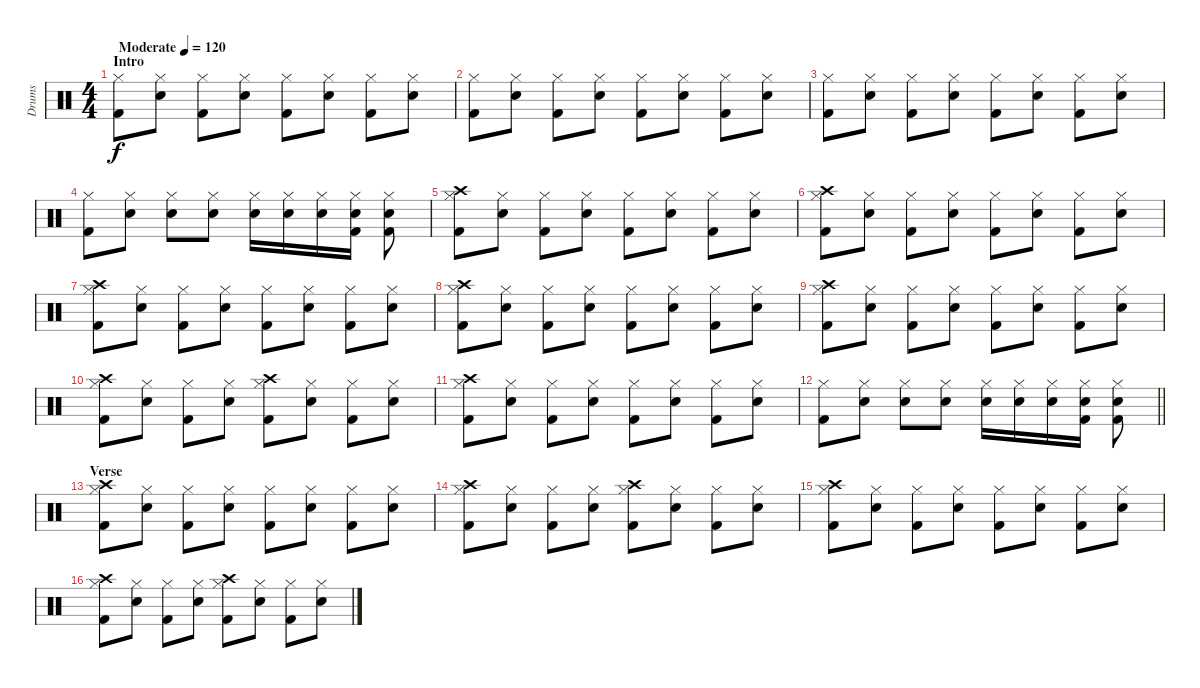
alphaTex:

\track ("Drums" "Drums") {instrument percussion}
\staff
\articulation defaults
\ts (4 4)
\section ("" "Intro")
\tempo (120 "Moderate")
\clef neutral
\ks c
("Hi-Hat (closed)" "Kick (hit) 2").8{dy f} ("Hi-Hat (closed)" "Electric Snare (hit)").8 ("Hi-Hat (closed)" "Kick (hit) 2").8 ("Hi-Hat (closed)" "Electric Snare (hit)").8 ("Hi-Hat (closed)" "Kick (hit) 2").8 ("Hi-Hat (closed)" "Electric Snare (hit)").8 ("Hi-Hat (closed)" "Kick (hit) 2").8 ("Hi-Hat (closed)" "Electric Snare (hit)").8 |
("Hi-Hat (closed)" "Kick (hit) 2").8 ("Hi-Hat (closed)" "Electric Snare (hit)").8 ("Hi-Hat (closed)" "Kick (hit) 2").8 ("Hi-Hat (closed)" "Electric Snare (hit)").8 ("Hi-Hat (closed)" "Kick (hit) 2").8 ("Hi-Hat (closed)" "Electric Snare (hit)").8 ("Hi-Hat (closed)" "Kick (hit) 2").8 ("Hi-Hat (closed)" "Electric Snare (hit)").8 |
("Hi-Hat (closed)" "Kick (hit) 2").8 ("Hi-Hat (closed)" "Electric Snare (hit)").8 ("Hi-Hat (closed)" "Kick (hit) 2").8 ("Hi-Hat (closed)" "Electric Snare (hit)").8 ("Hi-Hat (closed)" "Kick (hit) 2").8 ("Hi-Hat (closed)" "Electric Snare (hit)").8 ("Hi-Hat (closed)" "Kick (hit) 2").8 ("Hi-Hat (closed)" "Electric Snare (hit)").8 |
("Hi-Hat (closed)" "Kick (hit) 2").8 ("Hi-Hat (closed)" "Electric Snare (hit)").8 ("Hi-Hat (closed)" "Electric Snare (hit)").8 ("Hi-Hat (closed)" "Electric Snare (hit)").8 ("Hi-Hat (closed)" "Electric Snare (hit)").16 ("Hi-Hat (closed)" "Electric Snare (hit)").16 ("Hi-Hat (closed)" "Electric Snare (hit)").16 ("Hi-Hat (closed)" "Kick (hit) 2" "Electric Snare (hit)").16 ("Hi-Hat (closed)" "Kick (hit) 2" "Electric Snare (hit)").8 |
("Hi-Hat (closed)" "Kick (hit) 2" "Crash high (hit)").8 ("Hi-Hat (closed)" "Electric Snare (hit)").8 ("Hi-Hat (closed)" "Kick (hit) 2").8 ("Hi-Hat (closed)" "Electric Snare (hit)").8 ("Hi-Hat (closed)" "Kick (hit) 2").8 ("Hi-Hat (closed)" "Electric Snare (hit)").8 ("Hi-Hat (closed)" "Kick (hit) 2").8 ("Hi-Hat (closed)" "Electric Snare (hit)").8 |
("Hi-Hat (closed)" "Kick (hit) 2" "Crash high (hit)").8 ("Hi-Hat (closed)" "Electric Snare (hit)").8 ("Hi-Hat (closed)" "Kick (hit) 2").8 ("Hi-Hat (closed)" "Electric Snare (hit)").8 ("Hi-Hat (closed)" "Kick (hit) 2").8 ("Hi-Hat (closed)" "Electric Snare (hit)").8 ("Hi-Hat (closed)" "Kick (hit) 2").8 ("Hi-Hat (closed)" "Electric Snare (hit)").8 |
("Hi-Hat (closed)" "Kick (hit) 2" "Crash high (hit)").8 ("Hi-Hat (closed)" "Electric Snare (hit)").8 ("Hi-Hat (closed)" "Kick (hit) 2").8 ("Hi-Hat (closed)" "Electric Snare (hit)").8 ("Hi-Hat (closed)" "Kick (hit) 2").8 ("Hi-Hat (closed)" "Electric Snare (hit)").8 ("Hi-Hat (closed)" "Kick (hit) 2").8 ("Hi-Hat (closed)" "Electric Snare (hit)").8 |
("Hi-Hat (closed)" "Kick (hit) 2" "Crash high (hit)").8 ("Hi-Hat (closed)" "Electric Snare (hit)").8 ("Hi-Hat (closed)" "Kick (hit) 2").8 ("Hi-Hat (closed)" "Electric Snare (hit)").8 ("Hi-Hat (closed)" "Kick (hit) 2").8 ("Hi-Hat (closed)" "Electric Snare (hit)").8 ("Hi-Hat (closed)" "Kick (hit) 2").8 ("Hi-Hat (closed)" "Electric Snare (hit)").8 |
("Hi-Hat (closed)" "Kick (hit) 2" "Crash high (hit)").8 ("Hi-Hat (closed)" "Electric Snare (hit)").8 ("Hi-Hat (closed)" "Kick (hit) 2").8 ("Hi-Hat (closed)" "Electric Snare (hit)").8 ("Hi-Hat (closed)" "Kick (hit) 2").8 ("Hi-Hat (closed)" "Electric Snare (hit)").8 ("Hi-Hat (closed)" "Kick (hit) 2").8 ("Hi-Hat (closed)" "Electric Snare (hit)").8 |
("Hi-Hat (closed)" "Kick (hit) 2" "Crash high (hit)").8 ("Hi-Hat (closed)" "Electric Snare (hit)").8 ("Hi-Hat (closed)" "Kick (hit) 2").8 ("Hi-Hat (closed)" "Electric Snare (hit)").8 ("Hi-Hat (closed)" "Kick (hit) 2" "Crash high (hit)").8 ("Hi-Hat (closed)" "Electric Snare (hit)").8 ("Hi-Hat (closed)" "Kick (hit) 2").8 ("Hi-Hat (closed)" "Electric Snare (hit)").8 |
("Hi-Hat (closed)" "Kick (hit) 2" "Crash high (hit)").8 ("Hi-Hat (closed)" "Electric Snare (hit)").8 ("Hi-Hat (closed)" "Kick (hit) 2").8 ("Hi-Hat (closed)" "Electric Snare (hit)").8 ("Hi-Hat (closed)" "Kick (hit) 2").8 ("Hi-Hat (closed)" "Electric Snare (hit)").8 ("Hi-Hat (closed)" "Kick (hit) 2").8 ("Hi-Hat (closed)" "Electric Snare (hit)").8 |
\barLineRight lightlight
("Hi-Hat (closed)" "Kick (hit) 2").8 ("Hi-Hat (closed)" "Electric Snare (hit)").8 ("Hi-Hat (closed)" "Electric Snare (hit)").8 ("Hi-Hat (closed)" "Electric Snare (hit)").8 ("Hi-Hat (closed)" "Electric Snare (hit)").16 ("Hi-Hat (closed)" "Electric Snare (hit)").16 ("Hi-Hat (closed)" "Electric Snare (hit)").16 ("Hi-Hat (closed)" "Kick (hit) 2" "Electric Snare (hit)").16 ("Hi-Hat (closed)" "Kick (hit) 2" "Electric Snare (hit)").8 |
\section ("" "Verse")
("Hi-Hat (closed)" "Kick (hit) 2" "Crash high (hit)").8 ("Hi-Hat (closed)" "Electric Snare (hit)").8 ("Hi-Hat (closed)" "Kick (hit) 2").8 ("Hi-Hat (closed)" "Electric Snare (hit)").8 ("Hi-Hat (closed)" "Kick (hit) 2").8 ("Hi-Hat (closed)" "Electric Snare (hit)").8 ("Hi-Hat (closed)" "Kick (hit) 2").8 ("Hi-Hat (closed)" "Electric Snare (hit)").8 |
("Hi-Hat (closed)" "Kick (hit) 2" "Crash high (hit)").8 ("Hi-Hat (closed)" "Electric Snare (hit)").8 ("Hi-Hat (closed)" "Kick (hit) 2").8 ("Hi-Hat (closed)" "Electric Snare (hit)").8 ("Hi-Hat (closed)" "Kick (hit) 2" "Crash high (hit)").8 ("Hi-Hat (closed)" "Electric Snare (hit)").8 ("Hi-Hat (closed)" "Kick (hit) 2").8 ("Hi-Hat (closed)" "Electric Snare (hit)").8 |
("Hi-Hat (closed)" "Kick (hit) 2" "Crash high (hit)").8 ("Hi-Hat (closed)" "Electric Snare (hit)").8 ("Hi-Hat (closed)" "Kick (hit) 2").8 ("Hi-Hat (closed)" "Electric Snare (hit)").8 ("Hi-Hat (closed)" "Kick (hit) 2").8 ("Hi-Hat (closed)" "Electric Snare (hit)").8 ("Hi-Hat (closed)" "Kick (hit) 2").8 ("Hi-Hat (closed)" "Electric Snare (hit)").8 |
("Hi-Hat (closed)" "Kick (hit) 2" "Crash high (hit)").8 ("Hi-Hat (closed)" "Electric Snare (hit)").8 ("Hi-Hat (closed)" "Kick (hit) 2").8 ("Hi-Hat (closed)" "Electric Snare (hit)").8 ("Hi-Hat (closed)" "Kick (hit) 2" "Crash high (hit)").8 ("Hi-Hat (closed)" "Electric Snare (hit)").8 ("Hi-Hat (closed)" "Kick (hit) 2").8 ("Hi-Hat (closed)" "Electric Snare (hit)").8
